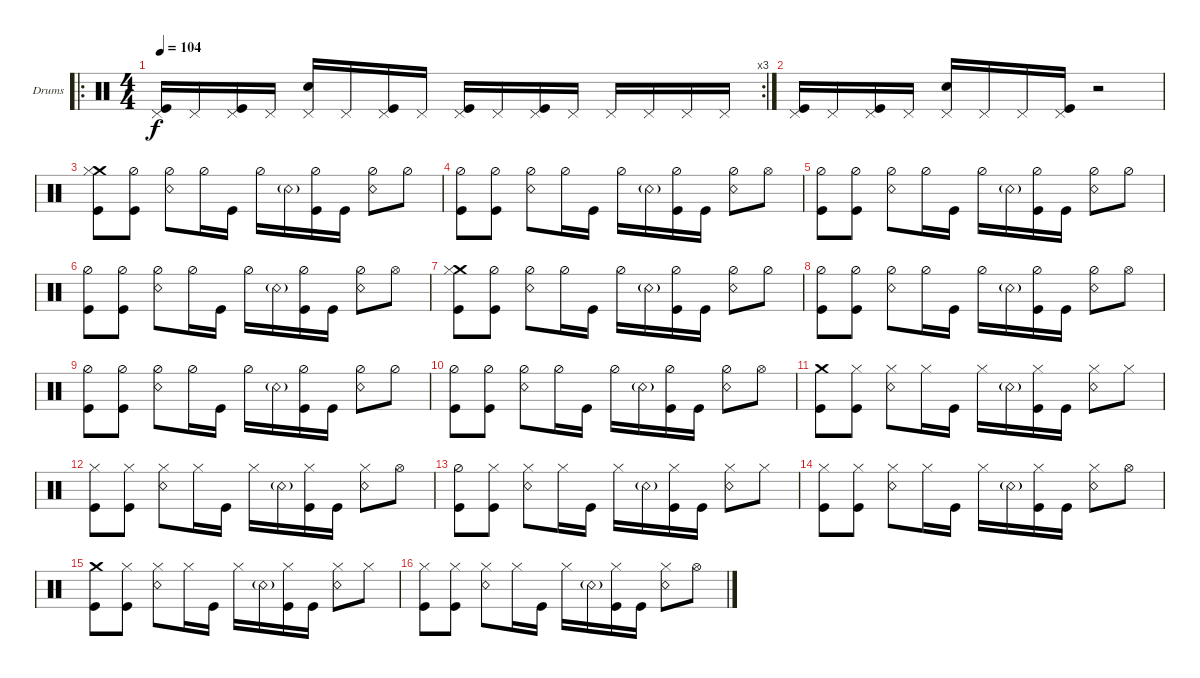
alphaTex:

\defaultSystemsLayout 4
\bracketExtendMode groupsimilarinstruments
\firstSystemTrackNameOrientation horizontal
\otherSystemsTrackNameOrientation horizontal
\track ("Drumkit" "Drums") {instrument percussion}
\staff {score}
\articulation defaults
\ro
\rc 3
\ts (4 4)
\tempo 104
\clef neutral
\ks c
("Pedal Hi-Hat (hit)" "Kick (hit)").16{dy f} "Pedal Hi-Hat (hit)".16 ("Pedal Hi-Hat (hit)" "Kick (hit)").16 "Pedal Hi-Hat (hit)".16 ("Pedal Hi-Hat (hit)" "Snare (hit) 2").16 "Pedal Hi-Hat (hit)".16 ("Pedal Hi-Hat (hit)" "Kick (hit)").16 "Pedal Hi-Hat (hit)".16 ("Pedal Hi-Hat (hit)" "Kick (hit)").16 "Pedal Hi-Hat (hit)".16 ("Pedal Hi-Hat (hit)" "Kick (hit)").16 "Pedal Hi-Hat (hit)".16 "Pedal Hi-Hat (hit)".16 "Pedal Hi-Hat (hit)".16 "Pedal Hi-Hat (hit)".16 "Pedal Hi-Hat (hit)".16 |
("Pedal Hi-Hat (hit)" "Kick (hit)").16 "Pedal Hi-Hat (hit)".16 ("Pedal Hi-Hat (hit)" "Kick (hit)").16 "Pedal Hi-Hat (hit)".16 ("Pedal Hi-Hat (hit)" "Snare (hit) 2").16 "Pedal Hi-Hat (hit)".16 "Pedal Hi-Hat (hit)".16 ("Kick (hit)" "Pedal Hi-Hat (hit)").16 r.2 |
("Crash medium (hit)" "Kick (hit)" "Hi-Hat (closed)").8 ("Kick (hit)" "Hi-Hat (half)").8 ("Snare (rim shot)" "Hi-Hat (half)").8 "Hi-Hat (half)".16 "Kick (hit)".16 "Hi-Hat (half)".16 "Snare (rim shot)"{g}.16 ("Kick (hit)" "Hi-Hat (half)").16 "Kick (hit)".16 ("Hi-Hat (half)" "Snare (rim shot)").8 "Hi-Hat (half)".8 |
("Kick (hit)" "Hi-Hat (half)").8 ("Kick (hit)" "Hi-Hat (half)").8 ("Snare (rim shot)" "Hi-Hat (half)").8 "Hi-Hat (half)".16 "Kick (hit)".16 "Hi-Hat (half)".16 "Snare (rim shot)"{g}.16 ("Kick (hit)" "Hi-Hat (half)").16 "Kick (hit)".16 ("Snare (rim shot)" "Hi-Hat (half)").8 "Hi-Hat (open)".8 |
("Kick (hit)" "Hi-Hat (half)").8 ("Kick (hit)" "Hi-Hat (half)").8 ("Snare (rim shot)" "Hi-Hat (half)").8 "Hi-Hat (half)".16 "Kick (hit)".16 "Hi-Hat (half)".16 "Snare (rim shot)"{g}.16 ("Kick (hit)" "Hi-Hat (half)").16 "Kick (hit)".16 ("Hi-Hat (half)" "Snare (rim shot)").8 "Hi-Hat (half)".8 |
("Kick (hit)" "Hi-Hat (half)").8 ("Kick (hit)" "Hi-Hat (half)").8 ("Snare (rim shot)" "Hi-Hat (half)").8 "Hi-Hat (half)".16 "Kick (hit)".16 "Hi-Hat (half)".16 "Snare (rim shot)"{g}.16 ("Kick (hit)" "Hi-Hat (half)").16 "Kick (hit)".16 ("Snare (rim shot)" "Hi-Hat (half)").8 "Hi-Hat (open)".8 |
("Crash medium (hit)" "Kick (hit)" "Hi-Hat (closed)").8 ("Kick (hit)" "Hi-Hat (half)").8 ("Snare (rim shot)" "Hi-Hat (half)").8 "Hi-Hat (half)".16 "Kick (hit)".16 "Hi-Hat (half)".16 "Snare (rim shot)"{g}.16 ("Kick (hit)" "Hi-Hat (half)").16 "Kick (hit)".16 ("Hi-Hat (half)" "Snare (rim shot)").8 "Hi-Hat (half)".8 |
("Kick (hit)" "Hi-Hat (half)").8 ("Kick (hit)" "Hi-Hat (half)").8 ("Snare (rim shot)" "Hi-Hat (half)").8 "Hi-Hat (half)".16 "Kick (hit)".16 "Hi-Hat (half)".16 "Snare (rim shot)"{g}.16 ("Kick (hit)" "Hi-Hat (half)").16 "Kick (hit)".16 ("Snare (rim shot)" "Hi-Hat (half)").8 "Hi-Hat (open)".8 |
("Kick (hit)" "Hi-Hat (half)").8 ("Kick (hit)" "Hi-Hat (half)").8 ("Snare (rim shot)" "Hi-Hat (half)").8 "Hi-Hat (half)".16 "Kick (hit)".16 "Hi-Hat (half)".16 "Snare (rim shot)"{g}.16 ("Kick (hit)" "Hi-Hat (half)").16 "Kick (hit)".16 ("Hi-Hat (half)" "Snare (rim shot)").8 "Hi-Hat (half)".8 |
("Kick (hit)" "Hi-Hat (half)").8 ("Kick (hit)" "Hi-Hat (half)").8 ("Snare (rim shot)" "Hi-Hat (half)").8 "Hi-Hat (half)".16 "Kick (hit)".16 "Hi-Hat (half)".16 "Snare (rim shot)"{g}.16 ("Kick (hit)" "Hi-Hat (half)").16 "Kick (hit)".16 ("Snare (rim shot)" "Hi-Hat (half)").8 "Hi-Hat (open)".8 |
("Crash medium (hit)" "Kick (hit)").8 ("Kick (hit)" "Hi-Hat (closed)").8 ("Snare (rim shot)" "Hi-Hat (closed)").8 "Hi-Hat (closed)".16 "Kick (hit)".16 "Hi-Hat (closed)".16 "Snare (rim shot)"{g}.16 ("Kick (hit)" "Hi-Hat (closed)").16 "Kick (hit)".16 ("Hi-Hat (closed)" "Snare (rim shot)").8 "Hi-Hat (closed)".8 |
("Kick (hit)" "Hi-Hat (closed)").8 ("Kick (hit)" "Hi-Hat (closed)").8 ("Snare (rim shot)" "Hi-Hat (closed)").8 "Hi-Hat (closed)".16 "Kick (hit)".16 "Hi-Hat (closed)".16 "Snare (rim shot)"{g}.16 ("Kick (hit)" "Hi-Hat (closed)").16 "Kick (hit)".16 ("Snare (rim shot)" "Hi-Hat (closed)").8 "Hi-Hat (open)".8 |
("Kick (hit)" "Hi-Hat (half)").8 ("Kick (hit)" "Hi-Hat (closed)").8 ("Snare (rim shot)" "Hi-Hat (closed)").8 "Hi-Hat (closed)".16 "Kick (hit)".16 "Hi-Hat (closed)".16 "Snare (rim shot)"{g}.16 ("Kick (hit)" "Hi-Hat (closed)").16 "Kick (hit)".16 ("Hi-Hat (closed)" "Snare (rim shot)").8 "Hi-Hat (closed)".8 |
("Kick (hit)" "Hi-Hat (closed)").8 ("Kick (hit)" "Hi-Hat (closed)").8 ("Snare (rim shot)" "Hi-Hat (closed)").8 "Hi-Hat (closed)".16 "Kick (hit)".16 "Hi-Hat (closed)".16 "Snare (rim shot)"{g}.16 ("Kick (hit)" "Hi-Hat (closed)").16 "Kick (hit)".16 ("Snare (rim shot)" "Hi-Hat (closed)").8 "Hi-Hat (open)".8 |
("Crash medium (hit)" "Kick (hit)").8 ("Kick (hit)" "Hi-Hat (closed)").8 ("Snare (rim shot)" "Hi-Hat (closed)").8 "Hi-Hat (closed)".16 "Kick (hit)".16 "Hi-Hat (closed)".16 "Snare (rim shot)"{g}.16 ("Kick (hit)" "Hi-Hat (closed)").16 "Kick (hit)".16 ("Hi-Hat (closed)" "Snare (rim shot)").8 "Hi-Hat (closed)".8 |
("Kick (hit)" "Hi-Hat (closed)").8 ("Kick (hit)" "Hi-Hat (closed)").8 ("Snare (rim shot)" "Hi-Hat (closed)").8 "Hi-Hat (closed)".16 "Kick (hit)".16 "Hi-Hat (closed)".16 "Snare (rim shot)"{g}.16 ("Kick (hit)" "Hi-Hat (closed)").16 "Kick (hit)".16 ("Snare (rim shot)" "Hi-Hat (closed)").8 "Hi-Hat (open)".8
